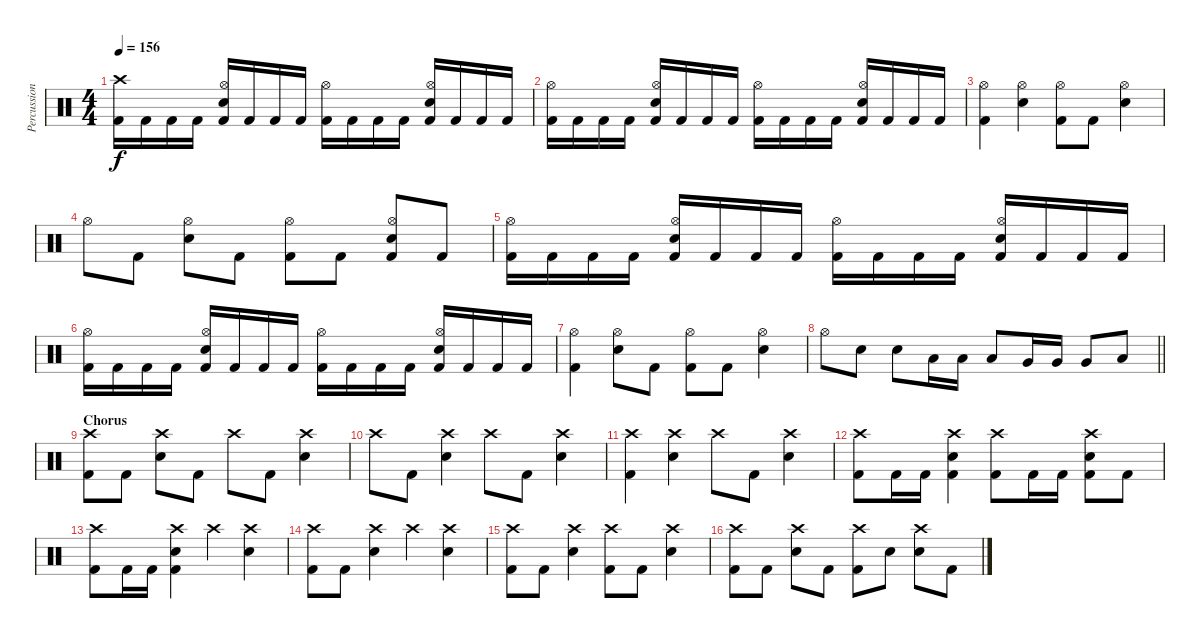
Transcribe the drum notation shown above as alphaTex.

\track ("Percussion" "Percussion") {instrument percussion}
\staff {score}
\articulation defaults
\ts (4 4)
\tempo 156
\clef neutral
\ks c
("Crash high (hit)" "Kick (hit) 2").16{dy f} "Kick (hit) 2".16 "Kick (hit) 2".16 "Kick (hit) 2".16 ("Hi-Hat (open)" "Electric Snare (hit)" "Kick (hit) 2").16 "Kick (hit) 2".16 "Kick (hit) 2".16 "Kick (hit) 2".16 ("Hi-Hat (open)" "Kick (hit) 2").16 "Kick (hit) 2".16 "Kick (hit) 2".16 "Kick (hit) 2".16 ("Hi-Hat (open)" "Electric Snare (hit)" "Kick (hit) 2").16 "Kick (hit) 2".16 "Kick (hit) 2".16 "Kick (hit) 2".16 |
("Hi-Hat (open)" "Kick (hit) 2").16 "Kick (hit) 2".16 "Kick (hit) 2".16 "Kick (hit) 2".16 ("Hi-Hat (open)" "Electric Snare (hit)" "Kick (hit) 2").16 "Kick (hit) 2".16 "Kick (hit) 2".16 "Kick (hit) 2".16 ("Hi-Hat (open)" "Kick (hit) 2").16 "Kick (hit) 2".16 "Kick (hit) 2".16 "Kick (hit) 2".16 ("Hi-Hat (open)" "Electric Snare (hit)" "Kick (hit) 2").16 "Kick (hit) 2".16 "Kick (hit) 2".16 "Kick (hit) 2".16 |
("Hi-Hat (open)" "Kick (hit) 2").4 ("Hi-Hat (open)" "Electric Snare (hit)").4 ("Hi-Hat (open)" "Kick (hit) 2").8 "Kick (hit) 2".8 ("Hi-Hat (open)" "Electric Snare (hit)").4 |
"Hi-Hat (open)".8 "Kick (hit) 2".8 ("Hi-Hat (open)" "Electric Snare (hit)").8 "Kick (hit) 2".8 ("Hi-Hat (open)" "Kick (hit) 2").8 "Kick (hit) 2".8 ("Hi-Hat (open)" "Electric Snare (hit)" "Kick (hit) 2").8 "Kick (hit) 2".8 |
("Hi-Hat (open)" "Kick (hit) 2").16 "Kick (hit) 2".16 "Kick (hit) 2".16 "Kick (hit) 2".16 ("Hi-Hat (open)" "Electric Snare (hit)" "Kick (hit) 2").16 "Kick (hit) 2".16 "Kick (hit) 2".16 "Kick (hit) 2".16 ("Hi-Hat (open)" "Kick (hit) 2").16 "Kick (hit) 2".16 "Kick (hit) 2".16 "Kick (hit) 2".16 ("Hi-Hat (open)" "Electric Snare (hit)" "Kick (hit) 2").16 "Kick (hit) 2".16 "Kick (hit) 2".16 "Kick (hit) 2".16 |
("Hi-Hat (open)" "Kick (hit) 2").16 "Kick (hit) 2".16 "Kick (hit) 2".16 "Kick (hit) 2".16 ("Hi-Hat (open)" "Electric Snare (hit)" "Kick (hit) 2").16 "Kick (hit) 2".16 "Kick (hit) 2".16 "Kick (hit) 2".16 ("Hi-Hat (open)" "Kick (hit) 2").16 "Kick (hit) 2".16 "Kick (hit) 2".16 "Kick (hit) 2".16 ("Hi-Hat (open)" "Electric Snare (hit)" "Kick (hit) 2").16 "Kick (hit) 2".16 "Kick (hit) 2".16 "Kick (hit) 2".16 |
("Hi-Hat (open)" "Kick (hit) 2").4 ("Hi-Hat (open)" "Electric Snare (hit)").8 "Kick (hit) 2".8 ("Hi-Hat (open)" "Kick (hit) 2").8 "Kick (hit) 2".8 ("Hi-Hat (open)" "Electric Snare (hit)").4 |
\barLineRight lightlight "Hi-Hat (open)".8 "Electric Snare (hit)".8 "Electric Snare (hit)".8 "Low Tom (hit)".16 "Low Tom (hit)".16 "Low Tom (hit)".8 "Very Low Tom (hit)".16 "Very Low Tom (hit)".16 "Very Low Tom (hit)".8 "Low Floor Tom (hit)".8
|
\section ("" "Chorus")
("Crash high (hit)" "Kick (hit) 2").8 "Kick (hit) 2".8 ("Crash high (hit)" "Electric Snare (hit)").8 "Kick (hit) 2".8 "Crash high (hit)".8 "Kick (hit) 2".8 ("Crash high (hit)" "Electric Snare (hit)").4 |
"Crash high (hit)".8 "Kick (hit) 2".8 ("Crash high (hit)" "Electric Snare (hit)").4 "Crash high (hit)".8 "Kick (hit) 2".8 ("Crash high (hit)" "Electric Snare (hit)").4 |
("Crash high (hit)" "Kick (hit) 2").4 ("Crash high (hit)" "Electric Snare (hit)").4 "Crash high (hit)".8 "Kick (hit) 2".8 ("Crash high (hit)" "Electric Snare (hit)").4 |
("Crash high (hit)" "Kick (hit) 2").8 "Kick (hit) 2".16 "Kick (hit) 2".16 ("Crash high (hit)" "Electric Snare (hit)" "Kick (hit) 2").4 ("Crash high (hit)" "Kick (hit) 2").8 "Kick (hit) 2".16 "Kick (hit) 2".16 ("Crash high (hit)" "Electric Snare (hit)" "Kick (hit) 2").8 "Kick (hit) 2".8 |
("Crash high (hit)" "Kick (hit) 2").8 "Kick (hit) 2".16 "Kick (hit) 2".16 ("Crash high (hit)" "Electric Snare (hit)" "Kick (hit) 2").4 "Crash high (hit)".4 ("Crash high (hit)" "Electric Snare (hit)").4 |
("Crash high (hit)" "Kick (hit) 2").8 "Kick (hit) 2".8 ("Crash high (hit)" "Electric Snare (hit)").4 "Crash high (hit)".4 ("Crash high (hit)" "Electric Snare (hit)").4 |
("Crash high (hit)" "Kick (hit) 2").8 "Kick (hit) 2".8 ("Crash high (hit)" "Electric Snare (hit)").4 ("Crash high (hit)" "Kick (hit) 2").8 "Kick (hit) 2".8 ("Crash high (hit)" "Electric Snare (hit)").4 |
("Crash high (hit)" "Kick (hit) 2").8 "Kick (hit) 2".8 ("Crash high (hit)" "Electric Snare (hit)").8 "Kick (hit) 2".8 ("Crash high (hit)" "Kick (hit) 2").8 "Electric Snare (hit)".8 ("Crash high (hit)" "Electric Snare (hit)").8 "Kick (hit) 2".8
